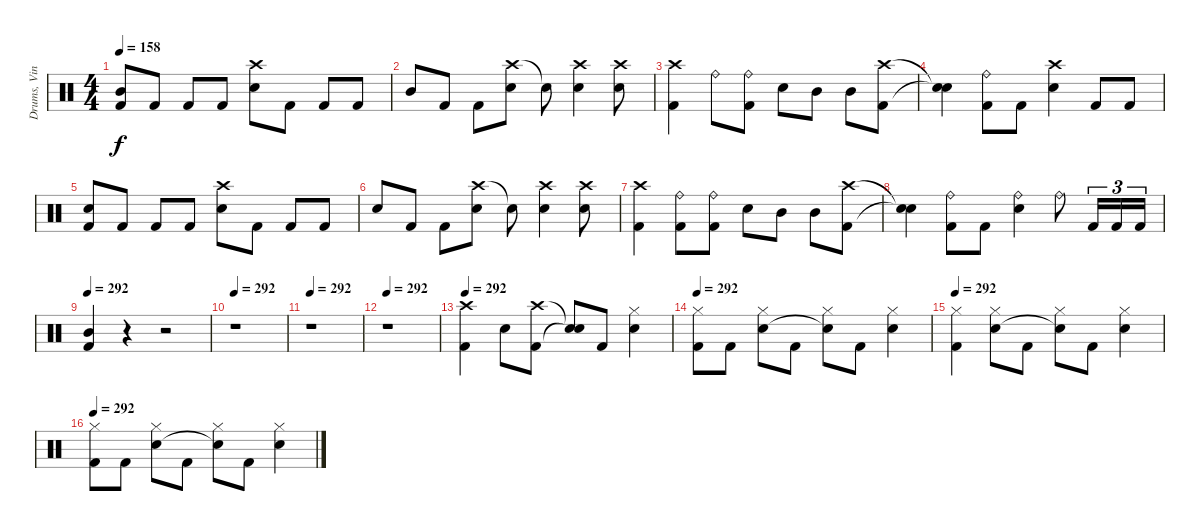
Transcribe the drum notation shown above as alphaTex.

\track ("Drums, Vinnie" "Drums, Vin") {instrument percussion}
\staff {score}
\articulation defaults
\ts (4 4)
\tempo 158
\clef neutral
\ks c
("Mid Tom (hit)" "Kick (hit) 2").8{dy f} "Kick (hit) 2".8 "Kick (hit) 2".8 "Kick (hit) 2".8 ("Crash high (hit)" "Electric Snare (hit)").8 "Kick (hit) 2".8 "Kick (hit) 2".8 "Kick (hit) 2".8 |
"Mid Tom (hit)".8 "Kick (hit) 2".8 "Kick (hit) 2".8 ("Crash high (hit)" "Electric Snare (hit)").8 "Snare (hit)"{t}.8 ("Crash high (hit)" "Electric Snare (hit)").4 ("Crash high (hit)" "Electric Snare (hit)").8 |
("Crash high (hit)" "Kick (hit) 2").4 "Ride (bell)".8 ("Ride (bell)" "Kick (hit) 2").8 "Electric Snare (hit)".8 "Mid Tom (hit)".8 "Mid Tom (hit)".8 ("Crash high (hit)" "Kick (hit) 2").8 |
("Snare (hit)"{t} "Snare (hit)"{t}).4 ("Ride (bell)" "Kick (hit) 2").8 "Kick (hit) 2".8 ("Crash high (hit)" "Electric Snare (hit)").4 "Kick (hit) 2".8 "Kick (hit) 2".8 |
("Electric Snare (hit)" "Kick (hit) 2").8 "Kick (hit) 2".8 "Kick (hit) 2".8 "Kick (hit) 2".8 ("Crash high (hit)" "Electric Snare (hit)").8 "Kick (hit) 2".8 "Kick (hit) 2".8 "Kick (hit) 2".8 |
"Electric Snare (hit)".8 "Kick (hit) 2".8 "Kick (hit) 2".8 ("Crash high (hit)" "Electric Snare (hit)").8 "Snare (hit)"{t}.8 ("Crash high (hit)" "Electric Snare (hit)").4 ("Crash high (hit)" "Electric Snare (hit)").8 |
("Crash high (hit)" "Kick (hit) 2").4 ("Ride (bell)" "Kick (hit) 2").8 ("Ride (bell)" "Kick (hit) 2").8 "Electric Snare (hit)".8 "Mid Tom (hit)".8 "Mid Tom (hit)".8 ("Crash high (hit)" "Kick (hit) 2").8 |
("Snare (hit)"{t} "Snare (hit)"{t}).4 ("Ride (bell)" "Kick (hit) 2").8 "Kick (hit) 2".8 ("Ride (bell)" "Electric Snare (hit)").4 "Ride (bell)".8 "Kick (hit) 2".16{tu (3 2)} "Kick (hit) 2".16{tu (3 2)} "Kick (hit) 2".16{tu (3 2)} |
\tempo 292
("Mid Tom (hit)" "Kick (hit) 2").4 r.4 r.2 |
\tempo 292
r.1 |
\tempo 292
r.1 |
\tempo 292
r.1 |
\tempo 292
("Crash high (hit)" "Kick (hit) 2").4 "Electric Snare (hit)".8 ("Crash high (hit)" "Kick (hit) 2").8 ("Snare (hit)"{t} "Snare (hit)"{t}).8 "Kick (hit) 2".8 ("Hi-Hat (closed)" "Electric Snare (hit)").4 |
\tempo 292
("Hi-Hat (closed)" "Kick (hit) 2").8 "Kick (hit) 2".8 ("Hi-Hat (closed)" "Electric Snare (hit)").8 "Kick (hit) 2".8 ("Hi-Hat (closed)" "Snare (hit)"{t}).8 "Kick (hit) 2".8 ("Hi-Hat (closed)" "Electric Snare (hit)").4 |
\tempo 292
("Hi-Hat (closed)" "Kick (hit) 2").4 ("Hi-Hat (closed)" "Electric Snare (hit)").8 "Kick (hit) 2".8 ("Hi-Hat (closed)" "Snare (hit)"{t}).8 "Kick (hit) 2".8 ("Hi-Hat (closed)" "Electric Snare (hit)").4 |
\tempo 292
("Hi-Hat (closed)" "Kick (hit) 2").8 "Kick (hit) 2".8 ("Hi-Hat (closed)" "Electric Snare (hit)").8 "Kick (hit) 2".8 ("Hi-Hat (closed)" "Snare (hit)"{t}).8 "Kick (hit) 2".8 ("Hi-Hat (closed)" "Electric Snare (hit)").4
